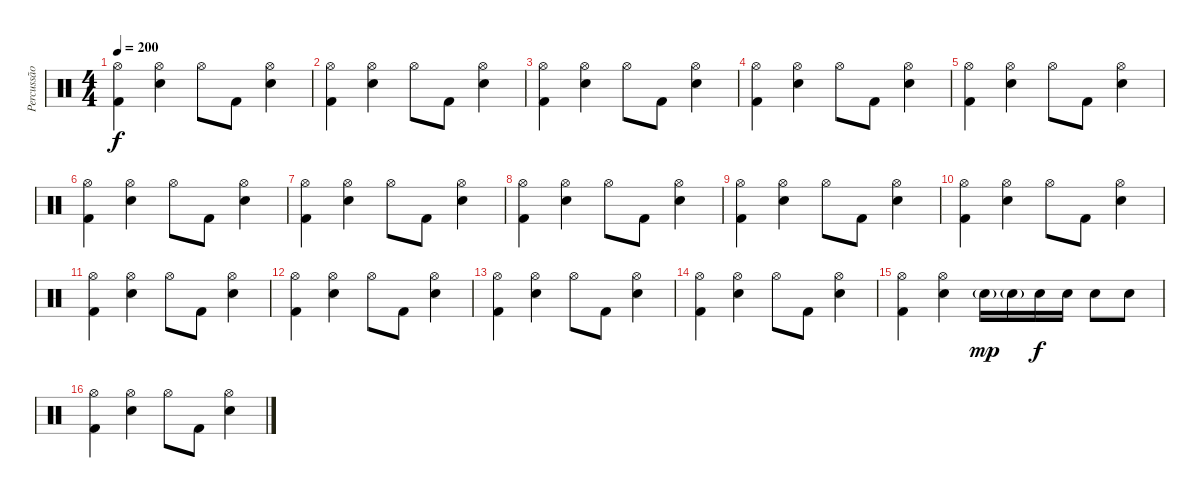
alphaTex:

\track ("Percussão" "Percussão") {instrument percussion}
\staff {score}
\articulation defaults
\ts (4 4)
\tempo 200
\clef neutral
\ks c
("Hi-Hat (open)" "Kick (hit) 2").4{dy f} ("Hi-Hat (open)" "Electric Snare (hit)").4 "Hi-Hat (open)".8 "Kick (hit) 2".8 ("Hi-Hat (open)" "Electric Snare (hit)").4 |
("Hi-Hat (open)" "Kick (hit) 2").4 ("Hi-Hat (open)" "Electric Snare (hit)").4 "Hi-Hat (open)".8 "Kick (hit) 2".8 ("Hi-Hat (open)" "Electric Snare (hit)").4 |
("Hi-Hat (open)" "Kick (hit) 2").4 ("Hi-Hat (open)" "Electric Snare (hit)").4 "Hi-Hat (open)".8 "Kick (hit) 2".8 ("Hi-Hat (open)" "Electric Snare (hit)").4 |
("Hi-Hat (open)" "Kick (hit) 2").4 ("Hi-Hat (open)" "Electric Snare (hit)").4 "Hi-Hat (open)".8 "Kick (hit) 2".8 ("Hi-Hat (open)" "Electric Snare (hit)").4 |
("Hi-Hat (open)" "Kick (hit) 2").4 ("Hi-Hat (open)" "Electric Snare (hit)").4 "Hi-Hat (open)".8 "Kick (hit) 2".8 ("Hi-Hat (open)" "Electric Snare (hit)").4 |
("Hi-Hat (open)" "Kick (hit) 2").4 ("Hi-Hat (open)" "Electric Snare (hit)").4 "Hi-Hat (open)".8 "Kick (hit) 2".8 ("Hi-Hat (open)" "Electric Snare (hit)").4 |
("Hi-Hat (open)" "Kick (hit) 2").4 ("Hi-Hat (open)" "Electric Snare (hit)").4 "Hi-Hat (open)".8 "Kick (hit) 2".8 ("Hi-Hat (open)" "Electric Snare (hit)").4 |
("Hi-Hat (open)" "Kick (hit) 2").4 ("Hi-Hat (open)" "Electric Snare (hit)").4 "Hi-Hat (open)".8 "Kick (hit) 2".8 ("Hi-Hat (open)" "Electric Snare (hit)").4 |
("Hi-Hat (open)" "Kick (hit) 2").4 ("Hi-Hat (open)" "Electric Snare (hit)").4 "Hi-Hat (open)".8 "Kick (hit) 2".8 ("Hi-Hat (open)" "Electric Snare (hit)").4 |
("Hi-Hat (open)" "Kick (hit) 2").4 ("Hi-Hat (open)" "Electric Snare (hit)").4 "Hi-Hat (open)".8 "Kick (hit) 2".8 ("Hi-Hat (open)" "Electric Snare (hit)").4 |
("Hi-Hat (open)" "Kick (hit) 2").4 ("Hi-Hat (open)" "Electric Snare (hit)").4 "Hi-Hat (open)".8 "Kick (hit) 2".8 ("Hi-Hat (open)" "Electric Snare (hit)").4 |
("Hi-Hat (open)" "Kick (hit) 2").4 ("Hi-Hat (open)" "Electric Snare (hit)").4 "Hi-Hat (open)".8 "Kick (hit) 2".8 ("Hi-Hat (open)" "Electric Snare (hit)").4 |
("Hi-Hat (open)" "Kick (hit) 2").4 ("Hi-Hat (open)" "Electric Snare (hit)").4 "Hi-Hat (open)".8 "Kick (hit) 2".8 ("Hi-Hat (open)" "Electric Snare (hit)").4 |
("Hi-Hat (open)" "Kick (hit) 2").4 ("Hi-Hat (open)" "Electric Snare (hit)").4 "Hi-Hat (open)".8 "Kick (hit) 2".8 ("Hi-Hat (open)" "Electric Snare (hit)").4 |
("Hi-Hat (open)" "Kick (hit) 2").4 ("Hi-Hat (open)" "Electric Snare (hit)").4 "Electric Snare (hit)"{g}.16{dy mp} "Electric Snare (hit)"{g}.16 "Electric Snare (hit)".16{dy f} "Electric Snare (hit)".16 "Electric Snare (hit)".8 "Electric Snare (hit)".8 |
("Hi-Hat (open)" "Kick (hit) 2").4 ("Hi-Hat (open)" "Electric Snare (hit)").4 "Hi-Hat (open)".8 "Kick (hit) 2".8 ("Hi-Hat (open)" "Electric Snare (hit)").4
